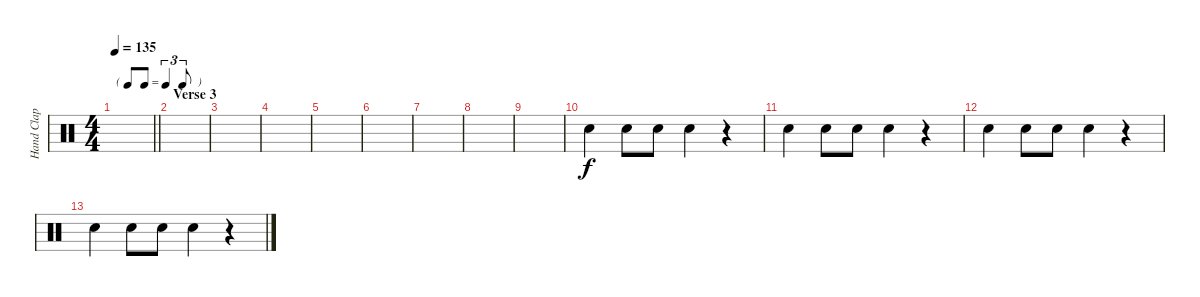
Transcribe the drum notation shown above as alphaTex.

\track ("Hand Clap" "Hand Clap") {instrument percussion}
\staff {score}
\articulation defaults
\ts (4 4)
\tf triplet8th
\tempo 135
\clef neutral
\barLineRight lightlight
\ks c
|
\section ("" "Verse 3")
|
|
|
|
|
|
|
|
"Hand Clap (hit)".4 "Hand Clap (hit)".8 "Hand Clap (hit)".8 "Hand Clap (hit)".4 r.4 |
"Hand Clap (hit)".4 "Hand Clap (hit)".8 "Hand Clap (hit)".8 "Hand Clap (hit)".4 r.4 |
"Hand Clap (hit)".4 "Hand Clap (hit)".8 "Hand Clap (hit)".8 "Hand Clap (hit)".4 r.4 |
"Hand Clap (hit)".4 "Hand Clap (hit)".8 "Hand Clap (hit)".8 "Hand Clap (hit)".4 r.4
